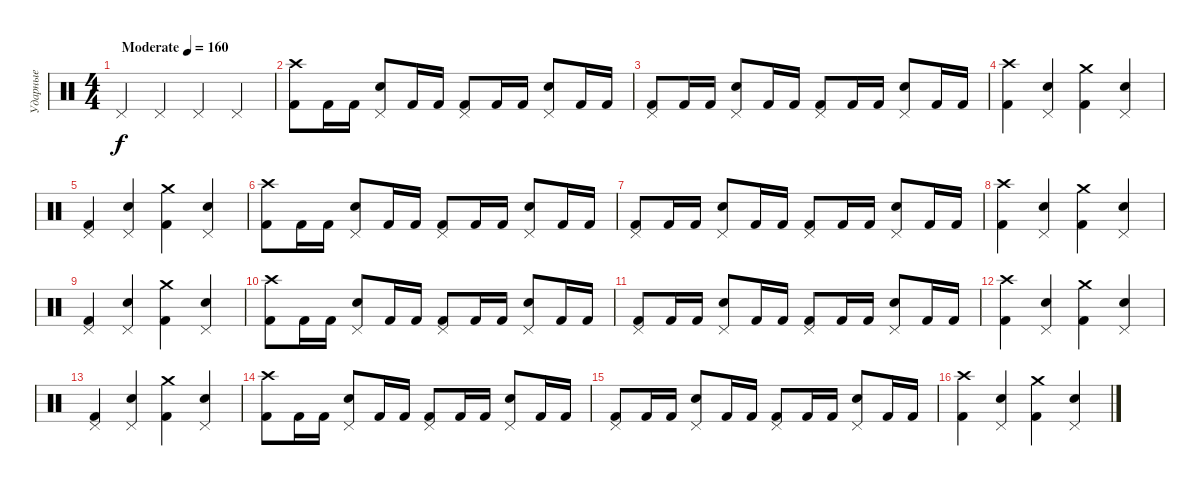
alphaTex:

\track ("Ударные" "Ударные") {instrument percussion}
\staff {score}
\articulation defaults
\ts (4 4)
\tempo (160 "Moderate")
\clef neutral
\ks c "Pedal Hi-Hat (hit)".4{dy f} "Pedal Hi-Hat (hit)".4 "Pedal Hi-Hat (hit)".4 "Pedal Hi-Hat (hit)".4
|
("Crash high (hit)" "Kick (hit) 2").8 "Kick (hit) 2".16 "Kick (hit) 2".16 ("Pedal Hi-Hat (hit)" "Electric Snare (hit)").8 "Kick (hit) 2".16 "Kick (hit) 2".16 ("Pedal Hi-Hat (hit)" "Kick (hit) 2").8 "Kick (hit) 2".16 "Kick (hit) 2".16 ("Pedal Hi-Hat (hit)" "Electric Snare (hit)").8 "Kick (hit) 2".16 "Kick (hit) 2".16 |
("Pedal Hi-Hat (hit)" "Kick (hit) 2").8 "Kick (hit) 2".16 "Kick (hit) 2".16 ("Pedal Hi-Hat (hit)" "Electric Snare (hit)").8 "Kick (hit) 2".16 "Kick (hit) 2".16 ("Pedal Hi-Hat (hit)" "Kick (hit) 2").8 "Kick (hit) 2".16 "Kick (hit) 2".16 ("Pedal Hi-Hat (hit)" "Electric Snare (hit)").8 "Kick (hit) 2".16 "Kick (hit) 2".16 |
("Crash high (hit)" "Kick (hit) 2").4 ("Pedal Hi-Hat (hit)" "Electric Snare (hit)").4 ("Crash medium (hit)" "Kick (hit) 2").4 ("Pedal Hi-Hat (hit)" "Electric Snare (hit)").4 |
("Pedal Hi-Hat (hit)" "Kick (hit) 2").4 ("Pedal Hi-Hat (hit)" "Electric Snare (hit)").4 ("Crash medium (hit)" "Kick (hit) 2").4 ("Pedal Hi-Hat (hit)" "Electric Snare (hit)").4 |
("Crash high (hit)" "Kick (hit) 2").8 "Kick (hit) 2".16 "Kick (hit) 2".16 ("Pedal Hi-Hat (hit)" "Electric Snare (hit)").8 "Kick (hit) 2".16 "Kick (hit) 2".16 ("Pedal Hi-Hat (hit)" "Kick (hit) 2").8 "Kick (hit) 2".16 "Kick (hit) 2".16 ("Pedal Hi-Hat (hit)" "Electric Snare (hit)").8 "Kick (hit) 2".16 "Kick (hit) 2".16 |
("Pedal Hi-Hat (hit)" "Kick (hit) 2").8 "Kick (hit) 2".16 "Kick (hit) 2".16 ("Pedal Hi-Hat (hit)" "Electric Snare (hit)").8 "Kick (hit) 2".16 "Kick (hit) 2".16 ("Pedal Hi-Hat (hit)" "Kick (hit) 2").8 "Kick (hit) 2".16 "Kick (hit) 2".16 ("Pedal Hi-Hat (hit)" "Electric Snare (hit)").8 "Kick (hit) 2".16 "Kick (hit) 2".16 |
("Crash high (hit)" "Kick (hit) 2").4 ("Pedal Hi-Hat (hit)" "Electric Snare (hit)").4 ("Crash medium (hit)" "Kick (hit) 2").4 ("Pedal Hi-Hat (hit)" "Electric Snare (hit)").4 |
("Pedal Hi-Hat (hit)" "Kick (hit) 2").4 ("Pedal Hi-Hat (hit)" "Electric Snare (hit)").4 ("Crash medium (hit)" "Kick (hit) 2").4 ("Pedal Hi-Hat (hit)" "Electric Snare (hit)").4 |
("Crash high (hit)" "Kick (hit) 2").8 "Kick (hit) 2".16 "Kick (hit) 2".16 ("Pedal Hi-Hat (hit)" "Electric Snare (hit)").8 "Kick (hit) 2".16 "Kick (hit) 2".16 ("Pedal Hi-Hat (hit)" "Kick (hit) 2").8 "Kick (hit) 2".16 "Kick (hit) 2".16 ("Pedal Hi-Hat (hit)" "Electric Snare (hit)").8 "Kick (hit) 2".16 "Kick (hit) 2".16 |
("Pedal Hi-Hat (hit)" "Kick (hit) 2").8 "Kick (hit) 2".16 "Kick (hit) 2".16 ("Pedal Hi-Hat (hit)" "Electric Snare (hit)").8 "Kick (hit) 2".16 "Kick (hit) 2".16 ("Pedal Hi-Hat (hit)" "Kick (hit) 2").8 "Kick (hit) 2".16 "Kick (hit) 2".16 ("Pedal Hi-Hat (hit)" "Electric Snare (hit)").8 "Kick (hit) 2".16 "Kick (hit) 2".16 |
("Crash high (hit)" "Kick (hit) 2").4 ("Pedal Hi-Hat (hit)" "Electric Snare (hit)").4 ("Crash medium (hit)" "Kick (hit) 2").4 ("Pedal Hi-Hat (hit)" "Electric Snare (hit)").4 |
("Pedal Hi-Hat (hit)" "Kick (hit) 2").4 ("Pedal Hi-Hat (hit)" "Electric Snare (hit)").4 ("Crash medium (hit)" "Kick (hit) 2").4 ("Pedal Hi-Hat (hit)" "Electric Snare (hit)").4 |
("Crash high (hit)" "Kick (hit) 2").8 "Kick (hit) 2".16 "Kick (hit) 2".16 ("Pedal Hi-Hat (hit)" "Electric Snare (hit)").8 "Kick (hit) 2".16 "Kick (hit) 2".16 ("Pedal Hi-Hat (hit)" "Kick (hit) 2").8 "Kick (hit) 2".16 "Kick (hit) 2".16 ("Pedal Hi-Hat (hit)" "Electric Snare (hit)").8 "Kick (hit) 2".16 "Kick (hit) 2".16 |
("Pedal Hi-Hat (hit)" "Kick (hit) 2").8 "Kick (hit) 2".16 "Kick (hit) 2".16 ("Pedal Hi-Hat (hit)" "Electric Snare (hit)").8 "Kick (hit) 2".16 "Kick (hit) 2".16 ("Pedal Hi-Hat (hit)" "Kick (hit) 2").8 "Kick (hit) 2".16 "Kick (hit) 2".16 ("Pedal Hi-Hat (hit)" "Electric Snare (hit)").8 "Kick (hit) 2".16 "Kick (hit) 2".16 |
("Crash high (hit)" "Kick (hit) 2").4 ("Pedal Hi-Hat (hit)" "Electric Snare (hit)").4 ("Crash medium (hit)" "Kick (hit) 2").4 ("Pedal Hi-Hat (hit)" "Electric Snare (hit)").4
